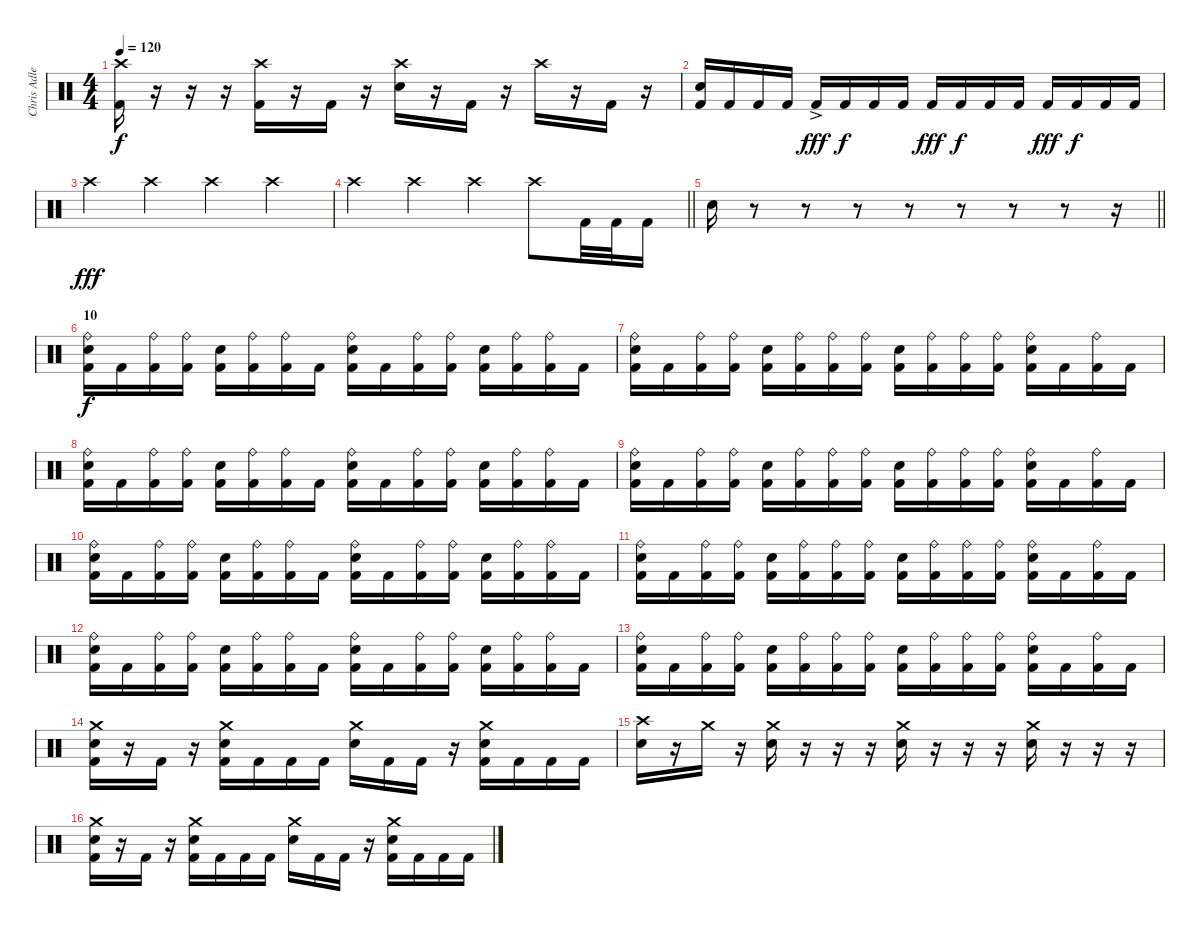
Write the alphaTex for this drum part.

\track ("Chris Adler" "Chris Adle") {instrument percussion}
\staff {score}
\articulation defaults
\ts (4 4)
\tempo 120
\clef neutral
\ks c
("Crash high (hit)" "Kick (hit) 2").16{dy f} r.16 r.16 r.16 ("Crash high (hit)" "Kick (hit) 2").16 r.16 "Kick (hit) 2".16 r.16 ("Crash high (hit)" "Electric Snare (hit)").16 r.16 "Kick (hit) 2".16 r.16 "Crash high (hit)".16 r.16 "Kick (hit) 2".16 r.16 |
("Electric Snare (hit)" "Kick (hit) 2").16 "Kick (hit) 2".16 "Kick (hit) 2".16 "Kick (hit) 2".16 "Kick (hit) 2"{ac}.16{dy fff} "Kick (hit) 2".16{dy f} "Kick (hit) 2".16 "Kick (hit) 2".16 "Kick (hit) 2".16{dy fff} "Kick (hit) 2".16{dy f} "Kick (hit) 2".16 "Kick (hit) 2".16 "Kick (hit) 2".16{dy fff} "Kick (hit) 2".16{dy f} "Kick (hit) 2".16 "Kick (hit) 2".16 |
"Crash high (hit)".4{dy fff} "Crash high (hit)".4 "Crash high (hit)".4 "Crash high (hit)".4 |
\barLineRight lightlight "Crash high (hit)".4 "Crash high (hit)".4 "Crash high (hit)".4 "Crash high (hit)".8 "Kick (hit) 2".32 "Kick (hit) 2".32 "Kick (hit) 2".16
|
\barLineRight lightlight "Electric Snare (hit)".16
r.8 r.8 r.8 r.8 r.8 r.8 r.8 r.16 |
\section ("" "10")
("Ride (bell)" "Electric Snare (hit)" "Kick (hit) 2").16{dy f} "Kick (hit) 2".16 ("Ride (bell)" "Kick (hit) 2").16 ("Ride (bell)" "Kick (hit) 2").16 ("Electric Snare (hit)" "Kick (hit) 2").16 ("Ride (bell)" "Kick (hit) 2").16 ("Ride (bell)" "Kick (hit) 2").16 "Kick (hit) 2".16 ("Ride (bell)" "Electric Snare (hit)" "Kick (hit) 2").16 "Kick (hit) 2".16 ("Ride (bell)" "Kick (hit) 2").16 ("Ride (bell)" "Kick (hit) 2").16 ("Electric Snare (hit)" "Kick (hit) 2").16 ("Ride (bell)" "Kick (hit) 2").16 ("Ride (bell)" "Kick (hit) 2").16 "Kick (hit) 2".16 |
("Ride (bell)" "Electric Snare (hit)" "Kick (hit) 2").16 "Kick (hit) 2".16 ("Ride (bell)" "Kick (hit) 2").16 ("Ride (bell)" "Kick (hit) 2").16 ("Electric Snare (hit)" "Kick (hit) 2").16 ("Ride (bell)" "Kick (hit) 2").16 ("Ride (bell)" "Kick (hit) 2").16 ("Ride (bell)" "Kick (hit) 2").16 ("Electric Snare (hit)" "Kick (hit) 2").16 ("Ride (bell)" "Kick (hit) 2").16 ("Ride (bell)" "Kick (hit) 2").16 ("Ride (bell)" "Kick (hit) 2").16 ("Ride (bell)" "Electric Snare (hit)" "Kick (hit) 2").16 "Kick (hit) 2".16 ("Ride (bell)" "Kick (hit) 2").16 "Kick (hit) 2".16 |
("Ride (bell)" "Electric Snare (hit)" "Kick (hit) 2").16 "Kick (hit) 2".16 ("Ride (bell)" "Kick (hit) 2").16 ("Ride (bell)" "Kick (hit) 2").16 ("Electric Snare (hit)" "Kick (hit) 2").16 ("Ride (bell)" "Kick (hit) 2").16 ("Ride (bell)" "Kick (hit) 2").16 "Kick (hit) 2".16 ("Ride (bell)" "Electric Snare (hit)" "Kick (hit) 2").16 "Kick (hit) 2".16 ("Ride (bell)" "Kick (hit) 2").16 ("Ride (bell)" "Kick (hit) 2").16 ("Electric Snare (hit)" "Kick (hit) 2").16 ("Ride (bell)" "Kick (hit) 2").16 ("Ride (bell)" "Kick (hit) 2").16 "Kick (hit) 2".16 |
("Ride (bell)" "Electric Snare (hit)" "Kick (hit) 2").16 "Kick (hit) 2".16 ("Ride (bell)" "Kick (hit) 2").16 ("Ride (bell)" "Kick (hit) 2").16 ("Electric Snare (hit)" "Kick (hit) 2").16 ("Ride (bell)" "Kick (hit) 2").16 ("Ride (bell)" "Kick (hit) 2").16 ("Ride (bell)" "Kick (hit) 2").16 ("Electric Snare (hit)" "Kick (hit) 2").16 ("Ride (bell)" "Kick (hit) 2").16 ("Ride (bell)" "Kick (hit) 2").16 ("Ride (bell)" "Kick (hit) 2").16 ("Ride (bell)" "Electric Snare (hit)" "Kick (hit) 2").16 "Kick (hit) 2".16 ("Ride (bell)" "Kick (hit) 2").16 "Kick (hit) 2".16 |
("Ride (bell)" "Electric Snare (hit)" "Kick (hit) 2").16 "Kick (hit) 2".16 ("Ride (bell)" "Kick (hit) 2").16 ("Ride (bell)" "Kick (hit) 2").16 ("Electric Snare (hit)" "Kick (hit) 2").16 ("Ride (bell)" "Kick (hit) 2").16 ("Ride (bell)" "Kick (hit) 2").16 "Kick (hit) 2".16 ("Ride (bell)" "Electric Snare (hit)" "Kick (hit) 2").16 "Kick (hit) 2".16 ("Ride (bell)" "Kick (hit) 2").16 ("Ride (bell)" "Kick (hit) 2").16 ("Electric Snare (hit)" "Kick (hit) 2").16 ("Ride (bell)" "Kick (hit) 2").16 ("Ride (bell)" "Kick (hit) 2").16 "Kick (hit) 2".16 |
("Ride (bell)" "Electric Snare (hit)" "Kick (hit) 2").16 "Kick (hit) 2".16 ("Ride (bell)" "Kick (hit) 2").16 ("Ride (bell)" "Kick (hit) 2").16 ("Electric Snare (hit)" "Kick (hit) 2").16 ("Ride (bell)" "Kick (hit) 2").16 ("Ride (bell)" "Kick (hit) 2").16 ("Ride (bell)" "Kick (hit) 2").16 ("Electric Snare (hit)" "Kick (hit) 2").16 ("Ride (bell)" "Kick (hit) 2").16 ("Ride (bell)" "Kick (hit) 2").16 ("Ride (bell)" "Kick (hit) 2").16 ("Ride (bell)" "Electric Snare (hit)" "Kick (hit) 2").16 "Kick (hit) 2".16 ("Ride (bell)" "Kick (hit) 2").16 "Kick (hit) 2".16 |
("Ride (bell)" "Electric Snare (hit)" "Kick (hit) 2").16 "Kick (hit) 2".16 ("Ride (bell)" "Kick (hit) 2").16 ("Ride (bell)" "Kick (hit) 2").16 ("Electric Snare (hit)" "Kick (hit) 2").16 ("Ride (bell)" "Kick (hit) 2").16 ("Ride (bell)" "Kick (hit) 2").16 "Kick (hit) 2".16 ("Ride (bell)" "Electric Snare (hit)" "Kick (hit) 2").16 "Kick (hit) 2".16 ("Ride (bell)" "Kick (hit) 2").16 ("Ride (bell)" "Kick (hit) 2").16 ("Electric Snare (hit)" "Kick (hit) 2").16 ("Ride (bell)" "Kick (hit) 2").16 ("Ride (bell)" "Kick (hit) 2").16 "Kick (hit) 2".16 |
("Ride (bell)" "Electric Snare (hit)" "Kick (hit) 2").16 "Kick (hit) 2".16 ("Ride (bell)" "Kick (hit) 2").16 ("Ride (bell)" "Kick (hit) 2").16 ("Electric Snare (hit)" "Kick (hit) 2").16 ("Ride (bell)" "Kick (hit) 2").16 ("Ride (bell)" "Kick (hit) 2").16 ("Ride (bell)" "Kick (hit) 2").16 ("Electric Snare (hit)" "Kick (hit) 2").16 ("Ride (bell)" "Kick (hit) 2").16 ("Ride (bell)" "Kick (hit) 2").16 ("Ride (bell)" "Kick (hit) 2").16 ("Ride (bell)" "Electric Snare (hit)" "Kick (hit) 2").16 "Kick (hit) 2".16 ("Ride (bell)" "Kick (hit) 2").16 "Kick (hit) 2".16 |
("Crash medium (hit)" "Electric Snare (hit)" "Kick (hit) 2").16 r.16 "Kick (hit) 2".16 r.16 ("Crash medium (hit)" "Electric Snare (hit)" "Kick (hit) 2").16 "Kick (hit) 2".16 "Kick (hit) 2".16 "Kick (hit) 2".16 ("Crash medium (hit)" "Electric Snare (hit)").16 "Kick (hit) 2".16 "Kick (hit) 2".16 r.16 ("Crash medium (hit)" "Electric Snare (hit)" "Kick (hit) 2").16 "Kick (hit) 2".16 "Kick (hit) 2".16 "Kick (hit) 2".16 |
("Crash high (hit)" "Electric Snare (hit)").16 r.16 "Crash medium (hit)".16 r.16 ("Crash medium (hit)" "Electric Snare (hit)").16 r.16 r.16 r.16 ("Crash medium (hit)" "Electric Snare (hit)").16 r.16 r.16 r.16 ("Crash medium (hit)" "Electric Snare (hit)").16 r.16 r.16 r.16 |
("Crash medium (hit)" "Electric Snare (hit)" "Kick (hit) 2").16 r.16 "Kick (hit) 2".16 r.16 ("Crash medium (hit)" "Electric Snare (hit)" "Kick (hit) 2").16 "Kick (hit) 2".16 "Kick (hit) 2".16 "Kick (hit) 2".16 ("Crash medium (hit)" "Electric Snare (hit)").16 "Kick (hit) 2".16 "Kick (hit) 2".16 r.16 ("Crash medium (hit)" "Electric Snare (hit)" "Kick (hit) 2").16 "Kick (hit) 2".16 "Kick (hit) 2".16 "Kick (hit) 2".16
